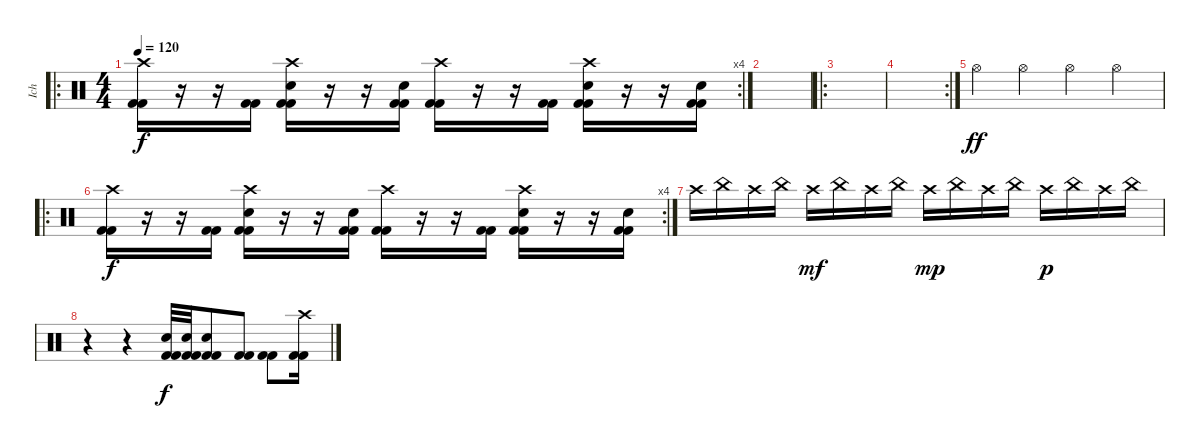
\track ("Ich" "Ich") {instrument percussion}
\staff {score}
\articulation defaults
\ro
\rc 4
\ts (4 4)
\tempo 120
\clef neutral
\ks c
("Crash high (hit)" "Kick (hit) 2" "Kick (hit) 2").16{dy f} r.16 r.16 ("Kick (hit) 2" "Kick (hit) 2").16 ("Crash high (hit)" "Kick (hit) 2" "Kick (hit) 2" "Snare (hit) 2").16 r.16 r.16 ("Snare (hit) 2" "Kick (hit) 2" "Kick (hit) 2").16 ("Crash high (hit)" "Kick (hit) 2" "Kick (hit) 2").16 r.16 r.16 ("Kick (hit) 2" "Kick (hit) 2").16 ("Crash high (hit)" "Kick (hit) 2" "Kick (hit) 2" "Snare (hit) 2").16 r.16 r.16 ("Snare (hit) 2" "Kick (hit) 2" "Kick (hit) 2").16 |
|
\ro
|
\rc 2
|
"Hi-Hat (open)".4{dy ff} "Hi-Hat (open)".4 "Hi-Hat (open)".4 "Hi-Hat (open)".4 |
\ro
\rc 4
("Crash high (hit)" "Kick (hit) 2" "Kick (hit) 2").16{dy f} r.16 r.16 ("Kick (hit) 2" "Kick (hit) 2").16 ("Crash high (hit)" "Kick (hit) 2" "Kick (hit) 2" "Snare (hit) 2").16 r.16 r.16 ("Snare (hit) 2" "Kick (hit) 2" "Kick (hit) 2").16 ("Crash high (hit)" "Kick (hit) 2" "Kick (hit) 2").16 r.16 r.16 ("Kick (hit) 2" "Kick (hit) 2").16 ("Crash high (hit)" "Kick (hit) 2" "Kick (hit) 2" "Snare (hit) 2").16 r.16 r.16 ("Snare (hit) 2" "Kick (hit) 2" "Kick (hit) 2").16 |
"Crash high (hit)".16 "China (hit)".16 "Crash high (hit)".16 "China (hit)".16 "Crash high (hit)".16{dy mf} "China (hit)".16 "Crash high (hit)".16 "China (hit)".16 "Crash high (hit)".16{dy mp} "China (hit)".16 "Crash high (hit)".16 "China (hit)".16 "Crash high (hit)".16{dy p} "China (hit)".16 "Crash high (hit)".16 "China (hit)".16 |
r.4 r.4 ("Kick (hit) 2" "Kick (hit) 2" "Electric Snare (hit)").32{dy f} ("Kick (hit) 2" "Kick (hit) 2" "Electric Snare (hit)").32 ("Kick (hit) 2" "Snare (hit) 2" "Kick (hit) 2").8 ("Kick (hit) 2" "Kick (hit) 2").8 ("Kick (hit) 2" "Kick (hit) 2").8 ("Kick (hit) 2" "Crash high (hit)" "Kick (hit) 2").16
